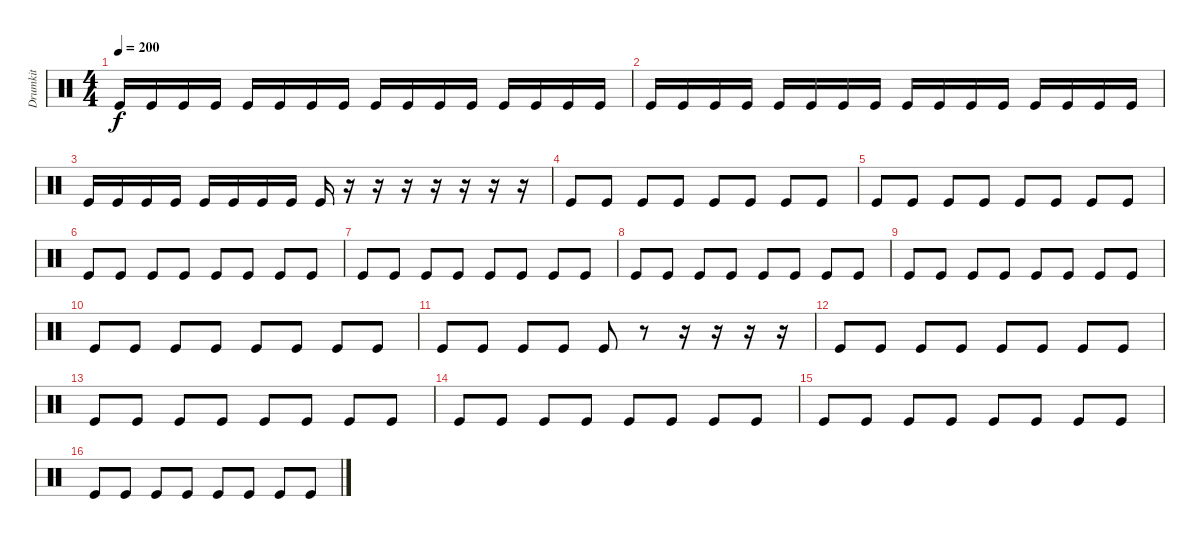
\track ("Drumkit" "Drumkit") {instrument percussion}
\staff {score}
\articulation defaults
\ts (4 4)
\tempo 200
\clef neutral
\ks c "Kick (hit)".16{dy f} "Kick (hit)".16 "Kick (hit)".16 "Kick (hit)".16 "Kick (hit)".16 "Kick (hit)".16 "Kick (hit)".16 "Kick (hit)".16 "Kick (hit)".16 "Kick (hit)".16 "Kick (hit)".16 "Kick (hit)".16 "Kick (hit)".16 "Kick (hit)".16 "Kick (hit)".16 "Kick (hit)".16
|
"Kick (hit)".16 "Kick (hit)".16 "Kick (hit)".16 "Kick (hit)".16 "Kick (hit)".16 "Kick (hit)".16 "Kick (hit)".16 "Kick (hit)".16 "Kick (hit)".16 "Kick (hit)".16 "Kick (hit)".16 "Kick (hit)".16 "Kick (hit)".16 "Kick (hit)".16 "Kick (hit)".16 "Kick (hit)".16 |
"Kick (hit)".16 "Kick (hit)".16 "Kick (hit)".16 "Kick (hit)".16 "Kick (hit)".16 "Kick (hit)".16 "Kick (hit)".16 "Kick (hit)".16 "Kick (hit)".16 r.16 r.16 r.16 r.16 r.16 r.16 r.16 |
"Kick (hit)".8 "Kick (hit)".8 "Kick (hit)".8 "Kick (hit)".8 "Kick (hit)".8 "Kick (hit)".8 "Kick (hit)".8 "Kick (hit)".8 |
"Kick (hit)".8 "Kick (hit)".8 "Kick (hit)".8 "Kick (hit)".8 "Kick (hit)".8 "Kick (hit)".8 "Kick (hit)".8 "Kick (hit)".8 |
"Kick (hit)".8 "Kick (hit)".8 "Kick (hit)".8 "Kick (hit)".8 "Kick (hit)".8 "Kick (hit)".8 "Kick (hit)".8 "Kick (hit)".8 |
"Kick (hit)".8 "Kick (hit)".8 "Kick (hit)".8 "Kick (hit)".8 "Kick (hit)".8 "Kick (hit)".8 "Kick (hit)".8 "Kick (hit)".8 |
"Kick (hit)".8 "Kick (hit)".8 "Kick (hit)".8 "Kick (hit)".8 "Kick (hit)".8 "Kick (hit)".8 "Kick (hit)".8 "Kick (hit)".8 |
"Kick (hit)".8 "Kick (hit)".8 "Kick (hit)".8 "Kick (hit)".8 "Kick (hit)".8 "Kick (hit)".8 "Kick (hit)".8 "Kick (hit)".8 |
"Kick (hit)".8 "Kick (hit)".8 "Kick (hit)".8 "Kick (hit)".8 "Kick (hit)".8 "Kick (hit)".8 "Kick (hit)".8 "Kick (hit)".8 |
"Kick (hit)".8 "Kick (hit)".8 "Kick (hit)".8 "Kick (hit)".8 "Kick (hit)".8 r.8 r.16 r.16 r.16 r.16 |
"Kick (hit)".8 "Kick (hit)".8 "Kick (hit)".8 "Kick (hit)".8 "Kick (hit)".8 "Kick (hit)".8 "Kick (hit)".8 "Kick (hit)".8 |
"Kick (hit)".8 "Kick (hit)".8 "Kick (hit)".8 "Kick (hit)".8 "Kick (hit)".8 "Kick (hit)".8 "Kick (hit)".8 "Kick (hit)".8 |
"Kick (hit)".8 "Kick (hit)".8 "Kick (hit)".8 "Kick (hit)".8 "Kick (hit)".8 "Kick (hit)".8 "Kick (hit)".8 "Kick (hit)".8 |
"Kick (hit)".8 "Kick (hit)".8 "Kick (hit)".8 "Kick (hit)".8 "Kick (hit)".8 "Kick (hit)".8 "Kick (hit)".8 "Kick (hit)".8 |
"Kick (hit)".8 "Kick (hit)".8 "Kick (hit)".8 "Kick (hit)".8 "Kick (hit)".8 "Kick (hit)".8 "Kick (hit)".8 "Kick (hit)".8
